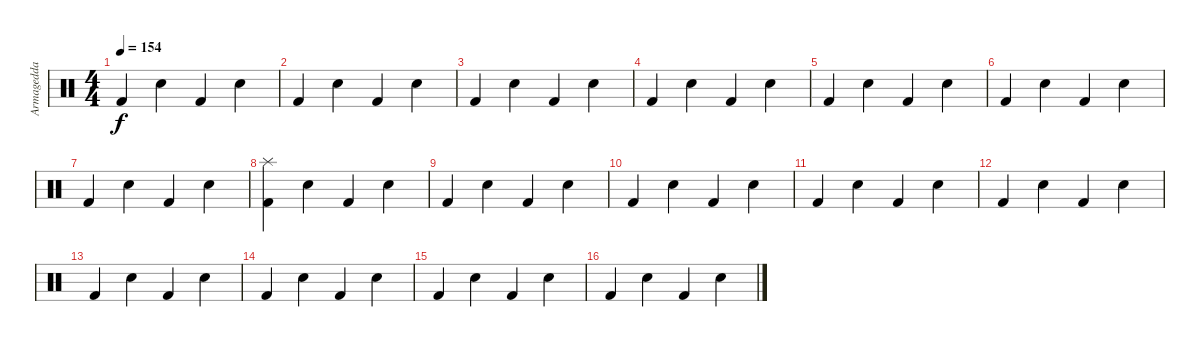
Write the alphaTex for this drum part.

\track ("Armagedda" "Armagedda") {instrument percussion}
\staff {score}
\articulation defaults
\ts (4 4)
\tempo 154
\clef neutral
\ks c "Kick (hit) 2".4{dy f} "Snare (hit) 2".4 "Kick (hit) 2".4 "Snare (hit) 2".4
|
"Kick (hit) 2".4 "Snare (hit) 2".4 "Kick (hit) 2".4 "Snare (hit) 2".4 |
"Kick (hit) 2".4 "Snare (hit) 2".4 "Kick (hit) 2".4 "Snare (hit) 2".4 |
"Kick (hit) 2".4 "Snare (hit) 2".4 "Kick (hit) 2".4 "Snare (hit) 2".4 |
"Kick (hit) 2".4 "Snare (hit) 2".4 "Kick (hit) 2".4 "Snare (hit) 2".4 |
"Kick (hit) 2".4 "Snare (hit) 2".4 "Kick (hit) 2".4 "Snare (hit) 2".4 |
"Kick (hit) 2".4 "Snare (hit) 2".4 "Kick (hit) 2".4 "Snare (hit) 2".4 |
("Splash (hit)" "Kick (hit) 2").4 "Snare (hit) 2".4 "Kick (hit) 2".4 "Snare (hit) 2".4 |
"Kick (hit) 2".4 "Snare (hit) 2".4 "Kick (hit) 2".4 "Snare (hit) 2".4 |
"Kick (hit) 2".4 "Snare (hit) 2".4 "Kick (hit) 2".4 "Snare (hit) 2".4 |
"Kick (hit) 2".4 "Snare (hit) 2".4 "Kick (hit) 2".4 "Snare (hit) 2".4 |
"Kick (hit) 2".4 "Snare (hit) 2".4 "Kick (hit) 2".4 "Snare (hit) 2".4 |
"Kick (hit) 2".4 "Snare (hit) 2".4 "Kick (hit) 2".4 "Snare (hit) 2".4 |
"Kick (hit) 2".4 "Snare (hit) 2".4 "Kick (hit) 2".4 "Snare (hit) 2".4 |
"Kick (hit) 2".4 "Snare (hit) 2".4 "Kick (hit) 2".4 "Snare (hit) 2".4 |
"Kick (hit) 2".4 "Snare (hit) 2".4 "Kick (hit) 2".4 "Snare (hit) 2".4
